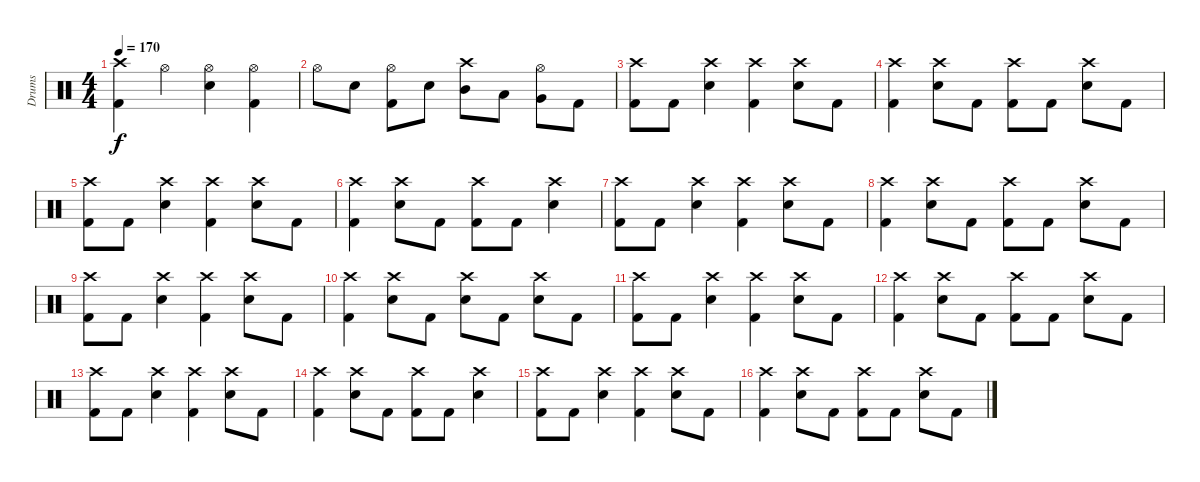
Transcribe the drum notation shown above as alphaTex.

\track ("Drums" "Drums") {instrument percussion}
\staff {score}
\articulation defaults
\ts (4 4)
\tempo 170
\clef neutral
\ks c
("Crash high (hit)" "Kick (hit) 2").4{dy f} "Hi-Hat (open)".4 ("Hi-Hat (open)" "Snare (hit) 2").4 ("Hi-Hat (open)" "Kick (hit) 2").4 |
"Hi-Hat (open)".8 "Snare (hit) 2".8 ("Hi-Hat (open)" "Kick (hit) 2").8 "Snare (hit) 2".8 ("Crash high (hit)" "Mid Tom (hit)").8 "Low Tom (hit)".8 ("Hi-Hat (open)" "Very Low Tom (hit)").8 "Kick (hit) 2".8 |
("Crash high (hit)" "Kick (hit) 2").8 "Kick (hit) 2".8 ("Crash high (hit)" "Snare (hit) 2").4 ("Crash high (hit)" "Kick (hit) 2").4 ("Crash high (hit)" "Snare (hit) 2").8 "Kick (hit) 2".8 |
("Crash high (hit)" "Kick (hit) 2").4 ("Crash high (hit)" "Snare (hit) 2").8 "Kick (hit) 2".8 ("Crash high (hit)" "Kick (hit) 2").8 "Kick (hit) 2".8 ("Crash high (hit)" "Snare (hit) 2").8 "Kick (hit) 2".8 |
("Crash high (hit)" "Kick (hit) 2").8 "Kick (hit) 2".8 ("Crash high (hit)" "Snare (hit) 2").4 ("Crash high (hit)" "Kick (hit) 2").4 ("Crash high (hit)" "Snare (hit) 2").8 "Kick (hit) 2".8 |
("Crash high (hit)" "Kick (hit) 2").4 ("Crash high (hit)" "Snare (hit) 2").8 "Kick (hit) 2".8 ("Crash high (hit)" "Kick (hit) 2").8 "Kick (hit) 2".8 ("Crash high (hit)" "Snare (hit) 2").4 |
("Crash high (hit)" "Kick (hit) 2").8 "Kick (hit) 2".8 ("Crash high (hit)" "Snare (hit) 2").4 ("Crash high (hit)" "Kick (hit) 2").4 ("Crash high (hit)" "Snare (hit) 2").8 "Kick (hit) 2".8 |
("Crash high (hit)" "Kick (hit) 2").4 ("Crash high (hit)" "Snare (hit) 2").8 "Kick (hit) 2".8 ("Crash high (hit)" "Kick (hit) 2").8 "Kick (hit) 2".8 ("Crash high (hit)" "Snare (hit) 2").8 "Kick (hit) 2".8 |
("Crash high (hit)" "Kick (hit) 2").8 "Kick (hit) 2".8 ("Crash high (hit)" "Snare (hit) 2").4 ("Crash high (hit)" "Kick (hit) 2").4 ("Crash high (hit)" "Snare (hit) 2").8 "Kick (hit) 2".8 |
("Crash high (hit)" "Kick (hit) 2").4 ("Crash high (hit)" "Snare (hit) 2").8 "Kick (hit) 2".8 ("Crash high (hit)" "Snare (hit) 2").8 "Kick (hit) 2".8 ("Crash high (hit)" "Snare (hit) 2").8 "Kick (hit) 2".8 |
("Crash high (hit)" "Kick (hit) 2").8 "Kick (hit) 2".8 ("Crash high (hit)" "Snare (hit) 2").4 ("Crash high (hit)" "Kick (hit) 2").4 ("Crash high (hit)" "Snare (hit) 2").8 "Kick (hit) 2".8 |
("Crash high (hit)" "Kick (hit) 2").4 ("Crash high (hit)" "Snare (hit) 2").8 "Kick (hit) 2".8 ("Crash high (hit)" "Kick (hit) 2").8 "Kick (hit) 2".8 ("Crash high (hit)" "Snare (hit) 2").8 "Kick (hit) 2".8 |
("Crash high (hit)" "Kick (hit) 2").8 "Kick (hit) 2".8 ("Crash high (hit)" "Snare (hit) 2").4 ("Crash high (hit)" "Kick (hit) 2").4 ("Crash high (hit)" "Snare (hit) 2").8 "Kick (hit) 2".8 |
("Crash high (hit)" "Kick (hit) 2").4 ("Crash high (hit)" "Snare (hit) 2").8 "Kick (hit) 2".8 ("Crash high (hit)" "Kick (hit) 2").8 "Kick (hit) 2".8 ("Crash high (hit)" "Snare (hit) 2").4 |
("Crash high (hit)" "Kick (hit) 2").8 "Kick (hit) 2".8 ("Crash high (hit)" "Snare (hit) 2").4 ("Crash high (hit)" "Kick (hit) 2").4 ("Crash high (hit)" "Snare (hit) 2").8 "Kick (hit) 2".8 |
("Crash high (hit)" "Kick (hit) 2").4 ("Crash high (hit)" "Snare (hit) 2").8 "Kick (hit) 2".8 ("Crash high (hit)" "Kick (hit) 2").8 "Kick (hit) 2".8 ("Crash high (hit)" "Snare (hit) 2").8 "Kick (hit) 2".8
